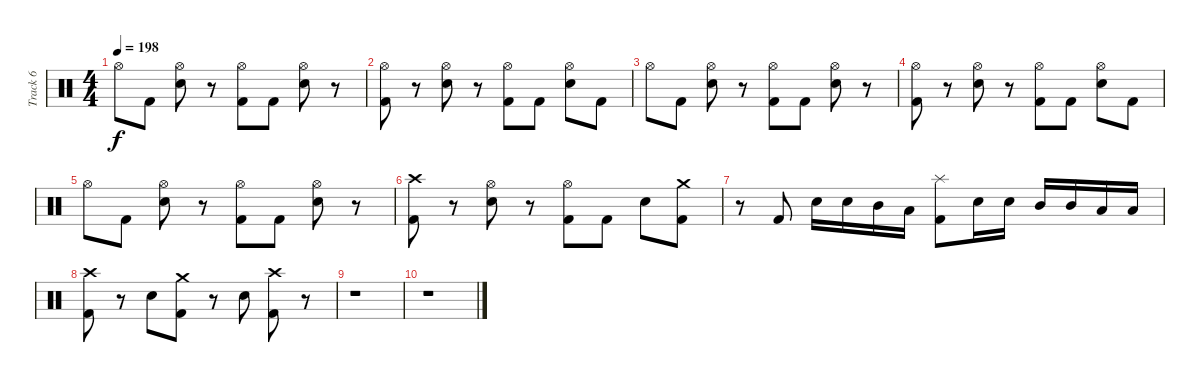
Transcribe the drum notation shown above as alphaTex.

\track ("Track 6" "Track 6") {instrument percussion}
\staff {score}
\articulation defaults
\ts (4 4)
\tempo 198
\clef neutral
\ks c "Hi-Hat (open)".8{dy f} "Kick (hit) 2".8
("Hi-Hat (open)" "Electric Snare (hit)").8 r.8 ("Hi-Hat (open)" "Kick (hit) 2").8 "Kick (hit) 2".8 ("Hi-Hat (open)" "Electric Snare (hit)").8 r.8 |
("Hi-Hat (open)" "Kick (hit) 2").8 r.8 ("Hi-Hat (open)" "Electric Snare (hit)").8 r.8 ("Hi-Hat (open)" "Kick (hit) 2").8 "Kick (hit) 2".8 ("Hi-Hat (open)" "Electric Snare (hit)").8 "Kick (hit) 2".8 |
"Hi-Hat (open)".8 "Kick (hit) 2".8 ("Hi-Hat (open)" "Electric Snare (hit)").8 r.8 ("Hi-Hat (open)" "Kick (hit) 2").8 "Kick (hit) 2".8 ("Hi-Hat (open)" "Electric Snare (hit)").8 r.8 |
("Hi-Hat (open)" "Kick (hit) 2").8 r.8 ("Hi-Hat (open)" "Electric Snare (hit)").8 r.8 ("Hi-Hat (open)" "Kick (hit) 2").8 "Kick (hit) 2".8 ("Hi-Hat (open)" "Electric Snare (hit)").8 "Kick (hit) 2".8 |
"Hi-Hat (open)".8 "Kick (hit) 2".8 ("Hi-Hat (open)" "Electric Snare (hit)").8 r.8 ("Hi-Hat (open)" "Kick (hit) 2").8 "Kick (hit) 2".8 ("Hi-Hat (open)" "Electric Snare (hit)").8 r.8 |
("Crash high (hit)" "Kick (hit) 2").8 r.8 ("Hi-Hat (open)" "Electric Snare (hit)").8 r.8 ("Hi-Hat (open)" "Kick (hit) 2").8 "Kick (hit) 2".8 "Electric Snare (hit)".8 ("Crash medium (hit)" "Kick (hit) 2").8 |
r.8 "Kick (hit) 2".8 "Electric Snare (hit)".16 "Electric Snare (hit)".16 "Mid Tom (hit)".16 "Low Tom (hit)".16 ("Splash (hit)" "Kick (hit) 2").8 "Electric Snare (hit)".16 "Electric Snare (hit)".16 "Mid Tom (hit)".16 "Mid Tom (hit)".16 "Low Tom (hit)".16 "Low Tom (hit)".16 |
("Crash high (hit)" "Kick (hit) 2").8 r.8 "Electric Snare (hit)".8 ("Crash medium (hit)" "Kick (hit) 2").8 r.8 "Electric Snare (hit)".8 ("Crash high (hit)" "Kick (hit) 2").8 r.8 |
r.1 |
r.1
